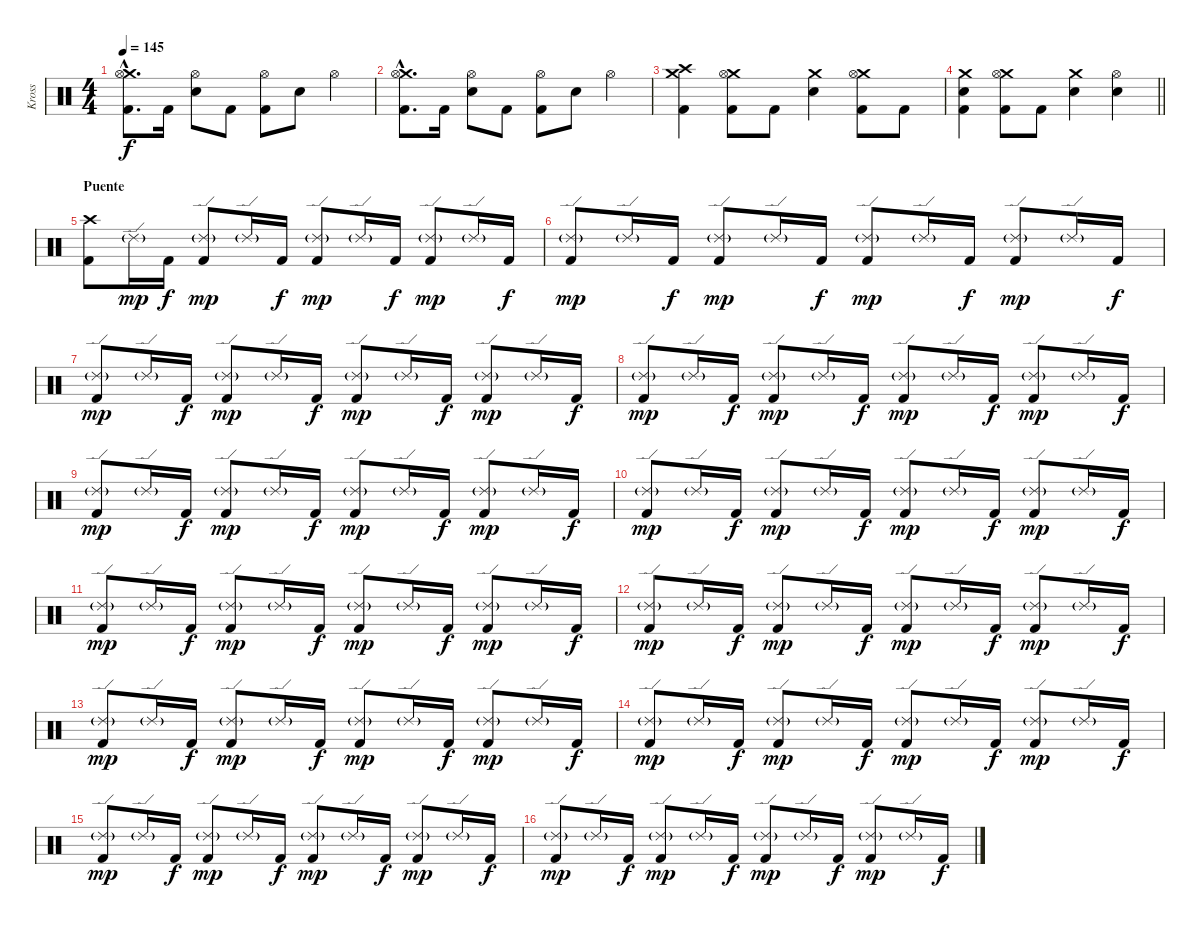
\track ("Kross" "Kross") {instrument percussion}
\staff {score}
\articulation defaults
\ts (4 4)
\tempo 145
\clef neutral
\ks c
("Crash medium (hit)"{hac} "Hi-Hat (open)"{hac} "Kick (hit) 2"{hac}).8{d dy f} "Kick (hit) 2".16 ("Hi-Hat (open)" "Electric Snare (hit)").8 "Kick (hit) 2".8 ("Hi-Hat (open)" "Kick (hit) 2").8 "Electric Snare (hit)".8 "Hi-Hat (open)".4 |
("Crash medium (hit)"{hac} "Hi-Hat (open)"{hac} "Kick (hit) 2"{hac}).8{d} "Kick (hit) 2".16 ("Hi-Hat (open)" "Electric Snare (hit)").8 "Kick (hit) 2".8 ("Hi-Hat (open)" "Kick (hit) 2").8 "Electric Snare (hit)".8 "Hi-Hat (open)".4 |
("Crash medium (hit)" "Crash high (hit)" "Kick (hit) 2").4 ("Crash medium (hit)" "Hi-Hat (open)" "Kick (hit) 2").8 "Kick (hit) 2".8 ("Crash medium (hit)" "Electric Snare (hit)").4 ("Crash medium (hit)" "Hi-Hat (open)" "Kick (hit) 2").8 "Kick (hit) 2".8 |
\barLineRight lightlight
("Crash medium (hit)" "Electric Snare (hit)" "Kick (hit) 2").4 ("Crash medium (hit)" "Hi-Hat (open)" "Kick (hit) 2").8 "Kick (hit) 2".8 ("Crash medium (hit)" "Electric Snare (hit)").4 ("Hi-Hat (open)" "Electric Snare (hit)").4 |
\section ("" "Puente")
("Crash high (hit)" "Kick (hit) 2").8 "Ride (edge) 2"{g}.16{dy mp} "Kick (hit) 2".16{dy f} ("Ride (edge) 2"{g} "Kick (hit) 2").8{dy mp} "Ride (edge) 2"{g}.16 "Kick (hit) 2".16{dy f} ("Ride (edge) 2"{g} "Kick (hit) 2").8{dy mp} "Ride (edge) 2"{g}.16 "Kick (hit) 2".16{dy f} ("Ride (edge) 2"{g} "Kick (hit) 2").8{dy mp} "Ride (edge) 2"{g}.16 "Kick (hit) 2".16{dy f} |
("Ride (edge) 2"{g} "Kick (hit) 2").8{dy mp} "Ride (edge) 2"{g}.16 "Kick (hit) 2".16{dy f} ("Ride (edge) 2"{g} "Kick (hit) 2").8{dy mp} "Ride (edge) 2"{g}.16 "Kick (hit) 2".16{dy f} ("Ride (edge) 2"{g} "Kick (hit) 2").8{dy mp} "Ride (edge) 2"{g}.16 "Kick (hit) 2".16{dy f} ("Ride (edge) 2"{g} "Kick (hit) 2").8{dy mp} "Ride (edge) 2"{g}.16 "Kick (hit) 2".16{dy f} |
("Ride (edge) 2"{g} "Kick (hit) 2").8{dy mp} "Ride (edge) 2"{g}.16 "Kick (hit) 2".16{dy f} ("Ride (edge) 2"{g} "Kick (hit) 2").8{dy mp} "Ride (edge) 2"{g}.16 "Kick (hit) 2".16{dy f} ("Ride (edge) 2"{g} "Kick (hit) 2").8{dy mp} "Ride (edge) 2"{g}.16 "Kick (hit) 2".16{dy f} ("Ride (edge) 2"{g} "Kick (hit) 2").8{dy mp} "Ride (edge) 2"{g}.16 "Kick (hit) 2".16{dy f} |
("Ride (edge) 2"{g} "Kick (hit) 2").8{dy mp} "Ride (edge) 2"{g}.16 "Kick (hit) 2".16{dy f} ("Ride (edge) 2"{g} "Kick (hit) 2").8{dy mp} "Ride (edge) 2"{g}.16 "Kick (hit) 2".16{dy f} ("Ride (edge) 2"{g} "Kick (hit) 2").8{dy mp} "Ride (edge) 2"{g}.16 "Kick (hit) 2".16{dy f} ("Ride (edge) 2"{g} "Kick (hit) 2").8{dy mp} "Ride (edge) 2"{g}.16 "Kick (hit) 2".16{dy f} |
("Ride (edge) 2"{g} "Kick (hit) 2").8{dy mp} "Ride (edge) 2"{g}.16 "Kick (hit) 2".16{dy f} ("Ride (edge) 2"{g} "Kick (hit) 2").8{dy mp} "Ride (edge) 2"{g}.16 "Kick (hit) 2".16{dy f} ("Ride (edge) 2"{g} "Kick (hit) 2").8{dy mp} "Ride (edge) 2"{g}.16 "Kick (hit) 2".16{dy f} ("Ride (edge) 2"{g} "Kick (hit) 2").8{dy mp} "Ride (edge) 2"{g}.16 "Kick (hit) 2".16{dy f} |
("Ride (edge) 2"{g} "Kick (hit) 2").8{dy mp} "Ride (edge) 2"{g}.16 "Kick (hit) 2".16{dy f} ("Ride (edge) 2"{g} "Kick (hit) 2").8{dy mp} "Ride (edge) 2"{g}.16 "Kick (hit) 2".16{dy f} ("Ride (edge) 2"{g} "Kick (hit) 2").8{dy mp} "Ride (edge) 2"{g}.16 "Kick (hit) 2".16{dy f} ("Ride (edge) 2"{g} "Kick (hit) 2").8{dy mp} "Ride (edge) 2"{g}.16 "Kick (hit) 2".16{dy f} |
("Ride (edge) 2"{g} "Kick (hit) 2").8{dy mp} "Ride (edge) 2"{g}.16 "Kick (hit) 2".16{dy f} ("Ride (edge) 2"{g} "Kick (hit) 2").8{dy mp} "Ride (edge) 2"{g}.16 "Kick (hit) 2".16{dy f} ("Ride (edge) 2"{g} "Kick (hit) 2").8{dy mp} "Ride (edge) 2"{g}.16 "Kick (hit) 2".16{dy f} ("Ride (edge) 2"{g} "Kick (hit) 2").8{dy mp} "Ride (edge) 2"{g}.16 "Kick (hit) 2".16{dy f} |
("Ride (edge) 2"{g} "Kick (hit) 2").8{dy mp} "Ride (edge) 2"{g}.16 "Kick (hit) 2".16{dy f} ("Ride (edge) 2"{g} "Kick (hit) 2").8{dy mp} "Ride (edge) 2"{g}.16 "Kick (hit) 2".16{dy f} ("Ride (edge) 2"{g} "Kick (hit) 2").8{dy mp} "Ride (edge) 2"{g}.16 "Kick (hit) 2".16{dy f} ("Ride (edge) 2"{g} "Kick (hit) 2").8{dy mp} "Ride (edge) 2"{g}.16 "Kick (hit) 2".16{dy f} |
("Ride (edge) 2"{g} "Kick (hit) 2").8{dy mp} "Ride (edge) 2"{g}.16 "Kick (hit) 2".16{dy f} ("Ride (edge) 2"{g} "Kick (hit) 2").8{dy mp} "Ride (edge) 2"{g}.16 "Kick (hit) 2".16{dy f} ("Ride (edge) 2"{g} "Kick (hit) 2").8{dy mp} "Ride (edge) 2"{g}.16 "Kick (hit) 2".16{dy f} ("Ride (edge) 2"{g} "Kick (hit) 2").8{dy mp} "Ride (edge) 2"{g}.16 "Kick (hit) 2".16{dy f} |
("Ride (edge) 2"{g} "Kick (hit) 2").8{dy mp} "Ride (edge) 2"{g}.16 "Kick (hit) 2".16{dy f} ("Ride (edge) 2"{g} "Kick (hit) 2").8{dy mp} "Ride (edge) 2"{g}.16 "Kick (hit) 2".16{dy f} ("Ride (edge) 2"{g} "Kick (hit) 2").8{dy mp} "Ride (edge) 2"{g}.16 "Kick (hit) 2".16{dy f} ("Ride (edge) 2"{g} "Kick (hit) 2").8{dy mp} "Ride (edge) 2"{g}.16 "Kick (hit) 2".16{dy f} |
("Ride (edge) 2"{g} "Kick (hit) 2").8{dy mp} "Ride (edge) 2"{g}.16 "Kick (hit) 2".16{dy f} ("Ride (edge) 2"{g} "Kick (hit) 2").8{dy mp} "Ride (edge) 2"{g}.16 "Kick (hit) 2".16{dy f} ("Ride (edge) 2"{g} "Kick (hit) 2").8{dy mp} "Ride (edge) 2"{g}.16 "Kick (hit) 2".16{dy f} ("Ride (edge) 2"{g} "Kick (hit) 2").8{dy mp} "Ride (edge) 2"{g}.16 "Kick (hit) 2".16{dy f} |
("Ride (edge) 2"{g} "Kick (hit) 2").8{dy mp} "Ride (edge) 2"{g}.16 "Kick (hit) 2".16{dy f} ("Ride (edge) 2"{g} "Kick (hit) 2").8{dy mp} "Ride (edge) 2"{g}.16 "Kick (hit) 2".16{dy f} ("Ride (edge) 2"{g} "Kick (hit) 2").8{dy mp} "Ride (edge) 2"{g}.16 "Kick (hit) 2".16{dy f} ("Ride (edge) 2"{g} "Kick (hit) 2").8{dy mp} "Ride (edge) 2"{g}.16 "Kick (hit) 2".16{dy f}
